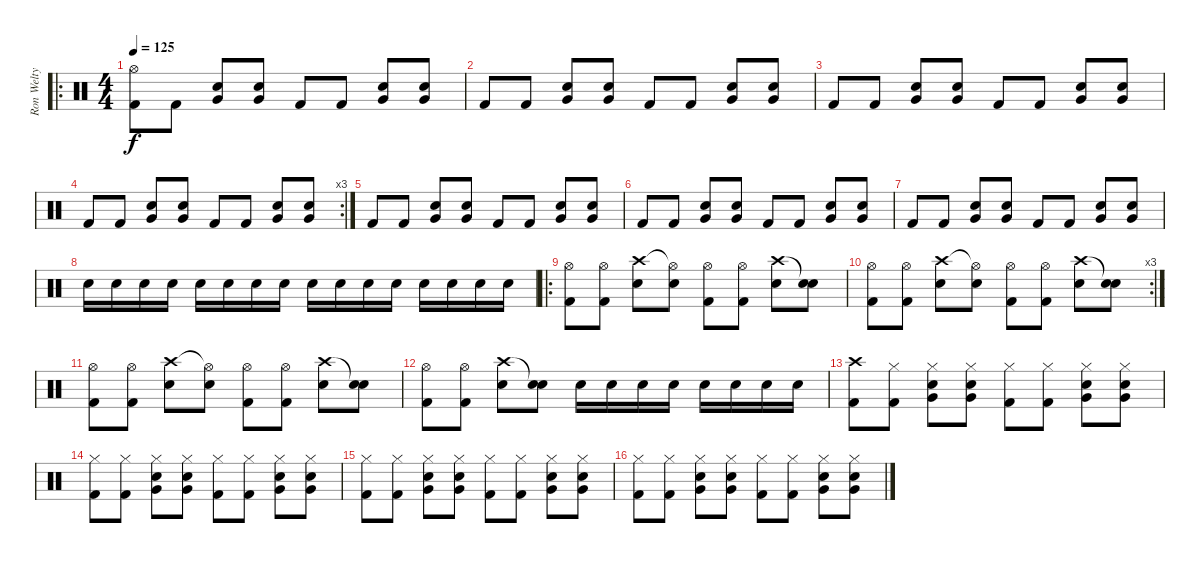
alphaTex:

\track ("Ron Welty" "Ron Welty") {instrument percussion}
\staff {score}
\articulation defaults
\ro
\ts (4 4)
\tempo 125
\clef neutral
\ks c
("Kick (hit) 2" "Hi-Hat (open)").8{dy f} "Kick (hit) 2".8 ("Snare (hit) 2" "Very Low Tom (hit)").8 ("Snare (hit) 2" "Very Low Tom (hit)").8 "Kick (hit) 2".8 "Kick (hit) 2".8 ("Snare (hit) 2" "Very Low Tom (hit)").8 ("Snare (hit) 2" "Very Low Tom (hit)").8 |
"Kick (hit) 2".8 "Kick (hit) 2".8 ("Snare (hit) 2" "Very Low Tom (hit)").8 ("Snare (hit) 2" "Very Low Tom (hit)").8 "Kick (hit) 2".8 "Kick (hit) 2".8 ("Snare (hit) 2" "Very Low Tom (hit)").8 ("Snare (hit) 2" "Very Low Tom (hit)").8 |
"Kick (hit) 2".8 "Kick (hit) 2".8 ("Snare (hit) 2" "Very Low Tom (hit)").8 ("Snare (hit) 2" "Very Low Tom (hit)").8 "Kick (hit) 2".8 "Kick (hit) 2".8 ("Snare (hit) 2" "Very Low Tom (hit)").8 ("Snare (hit) 2" "Very Low Tom (hit)").8 |
\rc 3 "Kick (hit) 2".8 "Kick (hit) 2".8
("Snare (hit) 2" "Very Low Tom (hit)").8 ("Snare (hit) 2" "Very Low Tom (hit)").8 "Kick (hit) 2".8 "Kick (hit) 2".8 ("Snare (hit) 2" "Very Low Tom (hit)").8 ("Snare (hit) 2" "Very Low Tom (hit)").8 |
"Kick (hit) 2".8 "Kick (hit) 2".8 ("Snare (hit) 2" "Very Low Tom (hit)").8 ("Snare (hit) 2" "Very Low Tom (hit)").8 "Kick (hit) 2".8 "Kick (hit) 2".8 ("Snare (hit) 2" "Very Low Tom (hit)").8 ("Snare (hit) 2" "Very Low Tom (hit)").8 |
"Kick (hit) 2".8 "Kick (hit) 2".8 ("Snare (hit) 2" "Very Low Tom (hit)").8 ("Snare (hit) 2" "Very Low Tom (hit)").8 "Kick (hit) 2".8 "Kick (hit) 2".8 ("Snare (hit) 2" "Very Low Tom (hit)").8 ("Snare (hit) 2" "Very Low Tom (hit)").8 |
"Kick (hit) 2".8 "Kick (hit) 2".8 ("Snare (hit) 2" "Very Low Tom (hit)").8 ("Snare (hit) 2" "Very Low Tom (hit)").8 "Kick (hit) 2".8 "Kick (hit) 2".8 ("Snare (hit) 2" "Very Low Tom (hit)").8 ("Snare (hit) 2" "Very Low Tom (hit)").8 |
"Snare (hit) 2".16 "Snare (hit) 2".16 "Snare (hit) 2".16 "Snare (hit) 2".16 "Snare (hit) 2".16 "Snare (hit) 2".16 "Snare (hit) 2".16 "Snare (hit) 2".16 "Snare (hit) 2".16 "Snare (hit) 2".16 "Snare (hit) 2".16 "Snare (hit) 2".16 "Snare (hit) 2".16 "Snare (hit) 2".16 "Snare (hit) 2".16 "Snare (hit) 2".16 |
\ro
("Kick (hit) 2" "Hi-Hat (open)").8 ("Kick (hit) 2" "Hi-Hat (open)").8 ("Snare (hit) 2" "Crash high (hit)").8 ("Snare (hit) 2" "Hi-Hat (open)"{t}).8 ("Kick (hit) 2" "Hi-Hat (open)").8 ("Kick (hit) 2" "Hi-Hat (open)").8 ("Snare (hit) 2" "Crash high (hit)").8 ("Snare (hit) 2" "Snare (hit)"{t}).8 |
\rc 3
("Kick (hit) 2" "Hi-Hat (open)").8 ("Kick (hit) 2" "Hi-Hat (open)").8 ("Snare (hit) 2" "Crash high (hit)").8 ("Snare (hit) 2" "Hi-Hat (open)"{t}).8 ("Kick (hit) 2" "Hi-Hat (open)").8 ("Kick (hit) 2" "Hi-Hat (open)").8 ("Snare (hit) 2" "Crash high (hit)").8 ("Snare (hit) 2" "Snare (hit)"{t}).8 |
("Kick (hit) 2" "Hi-Hat (open)").8 ("Kick (hit) 2" "Hi-Hat (open)").8 ("Snare (hit) 2" "Crash high (hit)").8 ("Snare (hit) 2" "Hi-Hat (open)"{t}).8 ("Kick (hit) 2" "Hi-Hat (open)").8 ("Kick (hit) 2" "Hi-Hat (open)").8 ("Snare (hit) 2" "Crash high (hit)").8 ("Snare (hit) 2" "Snare (hit)"{t}).8 |
("Kick (hit) 2" "Hi-Hat (open)").8 ("Kick (hit) 2" "Hi-Hat (open)").8 ("Snare (hit) 2" "Crash high (hit)").8 ("Snare (hit) 2" "Snare (hit)"{t}).8 "Snare (hit) 2".16 "Snare (hit) 2".16 "Snare (hit) 2".16 "Snare (hit) 2".16 "Snare (hit) 2".16 "Snare (hit) 2".16 "Snare (hit) 2".16 "Snare (hit) 2".16 |
("Kick (hit) 2" "Crash high (hit)").8 ("Kick (hit) 2" "Hi-Hat (closed)").8 ("Snare (hit) 2" "Very Low Tom (hit)" "Hi-Hat (closed)").8 ("Snare (hit) 2" "Very Low Tom (hit)" "Hi-Hat (closed)").8 ("Kick (hit) 2" "Hi-Hat (closed)").8 ("Kick (hit) 2" "Hi-Hat (closed)").8 ("Snare (hit) 2" "Very Low Tom (hit)" "Hi-Hat (closed)").8 ("Snare (hit) 2" "Very Low Tom (hit)" "Hi-Hat (closed)").8 |
("Kick (hit) 2" "Hi-Hat (closed)").8 ("Kick (hit) 2" "Hi-Hat (closed)").8 ("Snare (hit) 2" "Very Low Tom (hit)" "Hi-Hat (closed)").8 ("Snare (hit) 2" "Very Low Tom (hit)" "Hi-Hat (closed)").8 ("Kick (hit) 2" "Hi-Hat (closed)").8 ("Kick (hit) 2" "Hi-Hat (closed)").8 ("Snare (hit) 2" "Very Low Tom (hit)" "Hi-Hat (closed)").8 ("Snare (hit) 2" "Very Low Tom (hit)" "Hi-Hat (closed)").8 |
("Kick (hit) 2" "Hi-Hat (closed)").8 ("Kick (hit) 2" "Hi-Hat (closed)").8 ("Snare (hit) 2" "Very Low Tom (hit)" "Hi-Hat (closed)").8 ("Snare (hit) 2" "Very Low Tom (hit)" "Hi-Hat (closed)").8 ("Kick (hit) 2" "Hi-Hat (closed)").8 ("Kick (hit) 2" "Hi-Hat (closed)").8 ("Snare (hit) 2" "Very Low Tom (hit)" "Hi-Hat (closed)").8 ("Snare (hit) 2" "Very Low Tom (hit)" "Hi-Hat (closed)").8 |
("Kick (hit) 2" "Hi-Hat (closed)").8 ("Kick (hit) 2" "Hi-Hat (closed)").8 ("Snare (hit) 2" "Very Low Tom (hit)" "Hi-Hat (closed)").8 ("Snare (hit) 2" "Very Low Tom (hit)" "Hi-Hat (closed)").8 ("Kick (hit) 2" "Hi-Hat (closed)").8 ("Kick (hit) 2" "Hi-Hat (closed)").8 ("Snare (hit) 2" "Very Low Tom (hit)" "Hi-Hat (closed)").8 ("Snare (hit) 2" "Very Low Tom (hit)" "Hi-Hat (closed)").8
